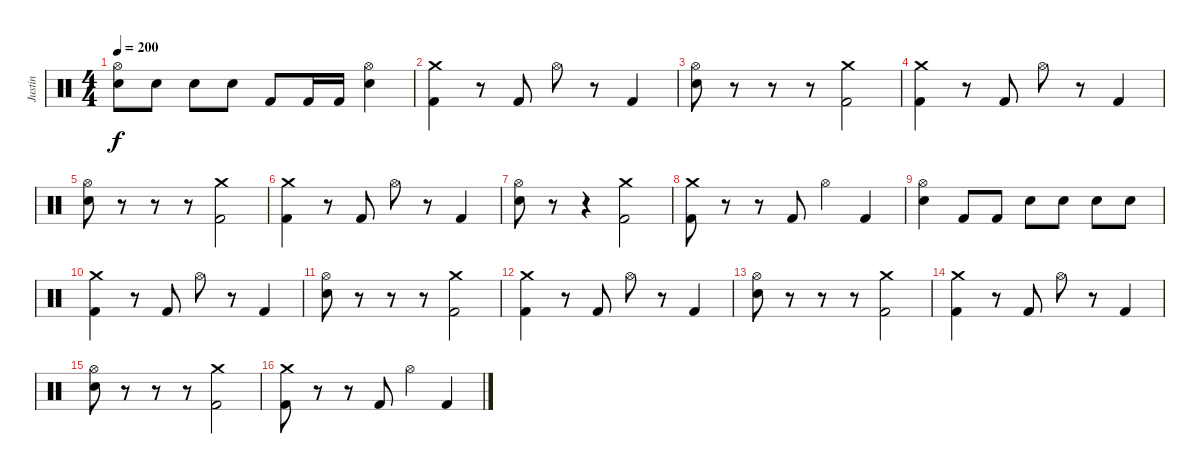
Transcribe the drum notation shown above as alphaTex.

\track ("Justin" "Justin") {instrument percussion}
\staff {score}
\articulation defaults
\ts (4 4)
\tempo 200
\clef neutral
\ks c
("Hi-Hat (open)" "Electric Snare (hit)").8{dy f} "Electric Snare (hit)".8 "Electric Snare (hit)".8 "Electric Snare (hit)".8 "Kick (hit) 2".8 "Kick (hit) 2".16 "Kick (hit) 2".16 ("Hi-Hat (open)" "Electric Snare (hit)").4 |
("Crash medium (hit)" "Kick (hit) 2").4 r.8 "Kick (hit) 2".8 "Hi-Hat (open)".8 r.8 "Kick (hit) 2".4 |
("Hi-Hat (open)" "Electric Snare (hit)").8 r.8 r.8 r.8 ("Crash medium (hit)" "Kick (hit) 2").2 |
("Crash medium (hit)" "Kick (hit) 2").4 r.8 "Kick (hit) 2".8 "Hi-Hat (open)".8 r.8 "Kick (hit) 2".4 |
("Hi-Hat (open)" "Electric Snare (hit)").8 r.8 r.8 r.8 ("Crash medium (hit)" "Kick (hit) 2").2 |
("Crash medium (hit)" "Kick (hit) 2").4 r.8 "Kick (hit) 2".8 "Hi-Hat (open)".8 r.8 "Kick (hit) 2".4 |
("Hi-Hat (open)" "Electric Snare (hit)").8 r.8 r.4 ("Crash medium (hit)" "Kick (hit) 2").2 |
("Crash medium (hit)" "Kick (hit) 2").8 r.8 r.8 "Kick (hit) 2".8 "Hi-Hat (open)".4 "Kick (hit) 2".4 |
("Hi-Hat (open)" "Electric Snare (hit)").4 "Kick (hit) 2".8 "Kick (hit) 2".8 "Electric Snare (hit)".8 "Electric Snare (hit)".8 "Electric Snare (hit)".8 "Electric Snare (hit)".8 |
("Crash medium (hit)" "Kick (hit) 2").4 r.8 "Kick (hit) 2".8 "Hi-Hat (open)".8 r.8 "Kick (hit) 2".4 |
("Hi-Hat (open)" "Electric Snare (hit)").8 r.8 r.8 r.8 ("Crash medium (hit)" "Kick (hit) 2").2 |
("Crash medium (hit)" "Kick (hit) 2").4 r.8 "Kick (hit) 2".8 "Hi-Hat (open)".8 r.8 "Kick (hit) 2".4 |
("Hi-Hat (open)" "Electric Snare (hit)").8 r.8 r.8 r.8 ("Crash medium (hit)" "Kick (hit) 2").2 |
("Crash medium (hit)" "Kick (hit) 2").4 r.8 "Kick (hit) 2".8 "Hi-Hat (open)".8 r.8 "Kick (hit) 2".4 |
("Hi-Hat (open)" "Electric Snare (hit)").8 r.8 r.8 r.8 ("Crash medium (hit)" "Kick (hit) 2").2 |
("Crash medium (hit)" "Kick (hit) 2").8 r.8 r.8 "Kick (hit) 2".8 "Hi-Hat (open)".4 "Kick (hit) 2".4
